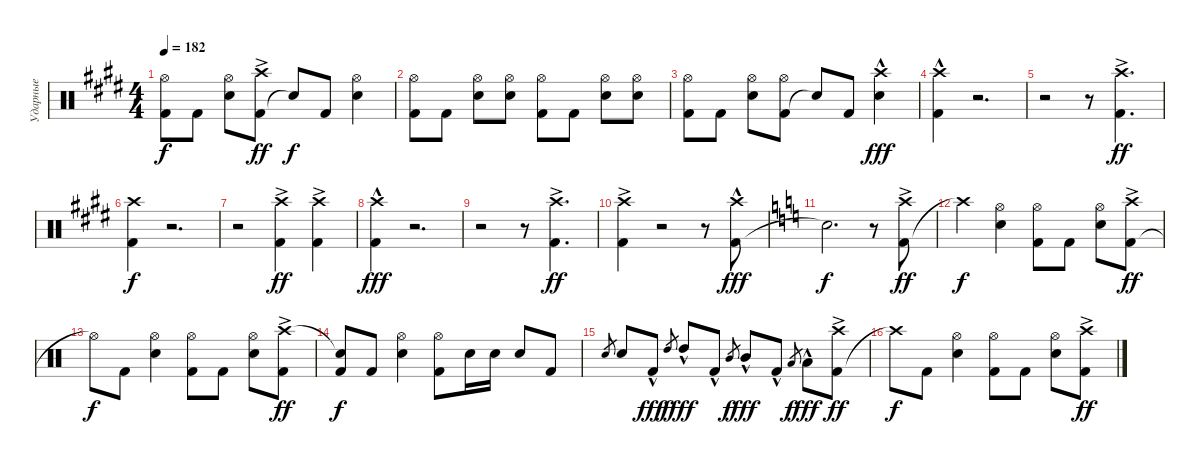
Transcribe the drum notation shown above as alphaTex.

\track ("Ударные" "Ударные") {instrument percussion}
\staff {score}
\articulation defaults
\ts (4 4)
\tempo 182
\clef neutral
\ks e
("Kick (hit) 2" "Hi-Hat (open)").8{dy f} "Kick (hit) 2".8 ("Snare (hit) 2" "Hi-Hat (open)").8 ("Kick (hit) 2" "Crash high (hit)"{ac}).8{dy ff} "Snare (hit)"{t}.8{dy f} "Kick (hit) 2".8 ("Snare (hit) 2" "Hi-Hat (open)").4 |
("Kick (hit) 2" "Hi-Hat (open)").8 "Kick (hit) 2".8 ("Snare (hit) 2" "Hi-Hat (open)").8 ("Snare (hit) 2" "Hi-Hat (open)").8 ("Kick (hit) 2" "Hi-Hat (open)").8 "Kick (hit) 2".8 ("Snare (hit) 2" "Hi-Hat (open)").8 ("Snare (hit) 2" "Hi-Hat (open)").8 |
("Kick (hit) 2" "Hi-Hat (open)").8 "Kick (hit) 2".8 ("Snare (hit) 2" "Hi-Hat (open)").8 ("Kick (hit) 2" "Hi-Hat (open)").8 "Snare (hit)"{t}.8 "Kick (hit) 2".8 ("Snare (hit) 2" "Crash high (hit)"{hac}).4{dy fff} |
("Kick (hit) 2" "Crash high (hit)"{hac}).4 r.2{d} |
r.2 r.8 ("Kick (hit) 2" "Crash high (hit)"{ac}).4{d dy ff} |
("Kick (hit) 2" "Crash high (hit)").4{dy f} r.2{d} |
r.2 ("Kick (hit) 2" "Crash high (hit)"{ac}).4{dy ff} ("Kick (hit) 2" "Crash high (hit)"{ac}).4 |
("Kick (hit) 2" "Crash high (hit)"{hac}).4{dy fff} r.2{d} |
r.2 r.8 ("Kick (hit) 2" "Crash high (hit)"{ac}).4{d dy ff} |
("Kick (hit) 2" "Crash high (hit)"{ac}).4 r.2 r.8 ("Kick (hit) 2" "Crash high (hit)"{hac}).8{dy fff} |
\ks c "Snare (hit)"{t}.2{d dy f}
r.8 ("Kick (hit) 2" "Crash high (hit)"{ac}).8{dy ff} |
"Crash high (hit)"{t}.4{dy f} ("Snare (hit) 2" "Hi-Hat (open)").4 ("Kick (hit) 2" "Hi-Hat (open)").8 "Kick (hit) 2".8 ("Snare (hit) 2" "Hi-Hat (open)").8 ("Kick (hit) 2" "Crash high (hit)"{ac}).8{dy ff} |
"Hi-Hat (open)"{t}.8{dy f} "Kick (hit) 2".8 ("Snare (hit) 2" "Hi-Hat (open)").4 ("Kick (hit) 2" "Hi-Hat (open)").8 "Kick (hit) 2".8 ("Snare (hit) 2" "Hi-Hat (open)").8 ("Kick (hit) 2" "Crash high (hit)"{ac}).8{dy ff} |
("Kick (hit) 2" "Snare (hit)"{t}).8{dy f} "Kick (hit) 2".8 ("Snare (hit) 2" "Hi-Hat (open)").4 ("Kick (hit) 2" "Hi-Hat (open)").8 "Snare (hit) 2".16 "Snare (hit) 2".16 "Snare (hit) 2".8 "Kick (hit) 2".8 |
"Snare (hit) 2".8{gr} "Snare (hit) 2".8 "Kick (hit) 2"{hac}.8{dy fff} "High Tom (hit)".8{gr dy f} "High Tom (hit)"{hac}.8{dy fff} "Kick (hit) 2"{hac}.8 "Mid Tom (hit)".8{gr dy f} "Mid Tom (hit)"{hac}.8{dy fff} "Kick (hit) 2"{hac}.8 "Low Tom (hit)".8{gr dy f} "Low Tom (hit)"{hac}.8{dy fff} ("Kick (hit) 2" "Crash high (hit)"{ac}).8{dy ff} |
"Crash high (hit)"{t}.8{dy f} "Kick (hit) 2".8 ("Snare (hit) 2" "Hi-Hat (open)").4 ("Kick (hit) 2" "Hi-Hat (open)").8 "Kick (hit) 2".8 ("Snare (hit) 2" "Hi-Hat (open)").8 ("Kick (hit) 2" "Crash high (hit)"{ac}).8{dy ff}
